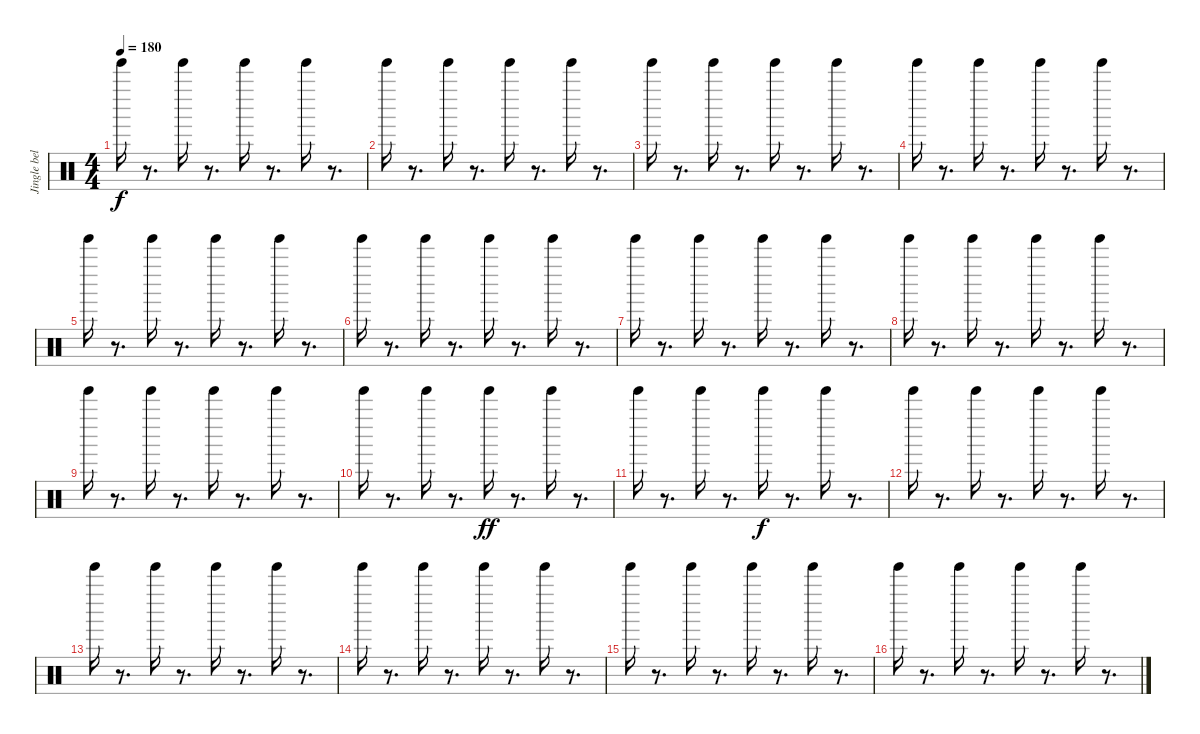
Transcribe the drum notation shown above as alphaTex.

\track ("Jingle bell" "Jingle bel") {instrument percussion}
\staff {score}
\articulation defaults
\ts (4 4)
\tempo 180
\clef neutral
\ks c "Tinkle Bell (hit)".16{dy f}
r.8{d} "Tinkle Bell (hit)".16 r.8{d} "Tinkle Bell (hit)".16 r.8{d} "Tinkle Bell (hit)".16 r.8{d} |
"Tinkle Bell (hit)".16 r.8{d} "Tinkle Bell (hit)".16 r.8{d} "Tinkle Bell (hit)".16 r.8{d} "Tinkle Bell (hit)".16 r.8{d} |
"Tinkle Bell (hit)".16 r.8{d} "Tinkle Bell (hit)".16 r.8{d} "Tinkle Bell (hit)".16 r.8{d} "Tinkle Bell (hit)".16 r.8{d} |
"Tinkle Bell (hit)".16 r.8{d} "Tinkle Bell (hit)".16 r.8{d} "Tinkle Bell (hit)".16 r.8{d} "Tinkle Bell (hit)".16 r.8{d} |
"Tinkle Bell (hit)".16 r.8{d} "Tinkle Bell (hit)".16 r.8{d} "Tinkle Bell (hit)".16 r.8{d} "Tinkle Bell (hit)".16 r.8{d} |
"Tinkle Bell (hit)".16 r.8{d} "Tinkle Bell (hit)".16 r.8{d} "Tinkle Bell (hit)".16 r.8{d} "Tinkle Bell (hit)".16 r.8{d} |
"Tinkle Bell (hit)".16 r.8{d} "Tinkle Bell (hit)".16 r.8{d} "Tinkle Bell (hit)".16 r.8{d} "Tinkle Bell (hit)".16 r.8{d} |
"Tinkle Bell (hit)".16 r.8{d} "Tinkle Bell (hit)".16 r.8{d} "Tinkle Bell (hit)".16 r.8{d} "Tinkle Bell (hit)".16 r.8{d} |
"Tinkle Bell (hit)".16 r.8{d} "Tinkle Bell (hit)".16 r.8{d} "Tinkle Bell (hit)".16 r.8{d} "Tinkle Bell (hit)".16 r.8{d} |
"Tinkle Bell (hit)".16 r.8{d} "Tinkle Bell (hit)".16 r.8{d} "Tinkle Bell (hit)".16{dy ff} r.8{d} "Tinkle Bell (hit)".16 r.8{d} |
"Tinkle Bell (hit)".16 r.8{d} "Tinkle Bell (hit)".16 r.8{d} "Tinkle Bell (hit)".16{dy f} r.8{d} "Tinkle Bell (hit)".16 r.8{d} |
"Tinkle Bell (hit)".16 r.8{d} "Tinkle Bell (hit)".16 r.8{d} "Tinkle Bell (hit)".16 r.8{d} "Tinkle Bell (hit)".16 r.8{d} |
"Tinkle Bell (hit)".16 r.8{d} "Tinkle Bell (hit)".16 r.8{d} "Tinkle Bell (hit)".16 r.8{d} "Tinkle Bell (hit)".16 r.8{d} |
"Tinkle Bell (hit)".16 r.8{d} "Tinkle Bell (hit)".16 r.8{d} "Tinkle Bell (hit)".16 r.8{d} "Tinkle Bell (hit)".16 r.8{d} |
"Tinkle Bell (hit)".16 r.8{d} "Tinkle Bell (hit)".16 r.8{d} "Tinkle Bell (hit)".16 r.8{d} "Tinkle Bell (hit)".16 r.8{d} |
"Tinkle Bell (hit)".16 r.8{d} "Tinkle Bell (hit)".16 r.8{d} "Tinkle Bell (hit)".16 r.8{d} "Tinkle Bell (hit)".16 r.8{d}
